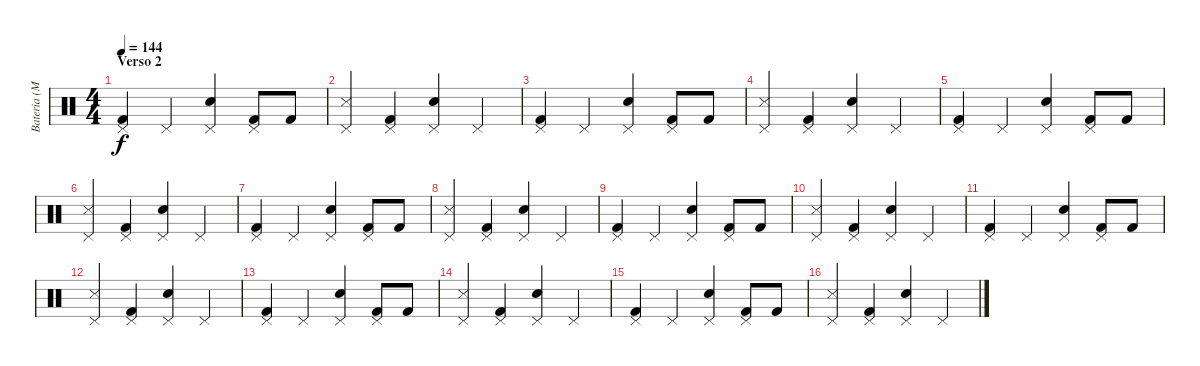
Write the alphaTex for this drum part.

\track ("Bateria (Matt)" "Bateria (M") {instrument percussion}
\staff {score}
\articulation defaults
\ts (4 4)
\section ("" "Verso 2")
\tempo 144
\clef neutral
\ks c
("Pedal Hi-Hat (hit)" "Kick (hit) 2").4{dy f} "Pedal Hi-Hat (hit)".4 ("Pedal Hi-Hat (hit)" "Snare (hit) 2").4 ("Pedal Hi-Hat (hit)" "Kick (hit) 2").8 "Kick (hit) 2".8 |
("Pedal Hi-Hat (hit)" "Snare (side stick) 3").4 ("Pedal Hi-Hat (hit)" "Kick (hit) 2").4 ("Pedal Hi-Hat (hit)" "Snare (hit) 2").4 "Pedal Hi-Hat (hit)".4 |
("Pedal Hi-Hat (hit)" "Kick (hit) 2").4 "Pedal Hi-Hat (hit)".4 ("Pedal Hi-Hat (hit)" "Snare (hit) 2").4 ("Pedal Hi-Hat (hit)" "Kick (hit) 2").8 "Kick (hit) 2".8 |
("Pedal Hi-Hat (hit)" "Snare (side stick) 3").4 ("Pedal Hi-Hat (hit)" "Kick (hit) 2").4 ("Pedal Hi-Hat (hit)" "Snare (hit) 2").4 "Pedal Hi-Hat (hit)".4 |
("Pedal Hi-Hat (hit)" "Kick (hit) 2").4 "Pedal Hi-Hat (hit)".4 ("Pedal Hi-Hat (hit)" "Snare (hit) 2").4 ("Pedal Hi-Hat (hit)" "Kick (hit) 2").8 "Kick (hit) 2".8 |
("Pedal Hi-Hat (hit)" "Snare (side stick) 3").4 ("Pedal Hi-Hat (hit)" "Kick (hit) 2").4 ("Pedal Hi-Hat (hit)" "Snare (hit) 2").4 "Pedal Hi-Hat (hit)".4 |
("Pedal Hi-Hat (hit)" "Kick (hit) 2").4 "Pedal Hi-Hat (hit)".4 ("Pedal Hi-Hat (hit)" "Snare (hit) 2").4 ("Pedal Hi-Hat (hit)" "Kick (hit) 2").8 "Kick (hit) 2".8 |
("Pedal Hi-Hat (hit)" "Snare (side stick) 3").4 ("Pedal Hi-Hat (hit)" "Kick (hit) 2").4 ("Pedal Hi-Hat (hit)" "Snare (hit) 2").4 "Pedal Hi-Hat (hit)".4 |
("Pedal Hi-Hat (hit)" "Kick (hit) 2").4 "Pedal Hi-Hat (hit)".4 ("Pedal Hi-Hat (hit)" "Snare (hit) 2").4 ("Pedal Hi-Hat (hit)" "Kick (hit) 2").8 "Kick (hit) 2".8 |
("Pedal Hi-Hat (hit)" "Snare (side stick) 3").4 ("Pedal Hi-Hat (hit)" "Kick (hit) 2").4 ("Pedal Hi-Hat (hit)" "Snare (hit) 2").4 "Pedal Hi-Hat (hit)".4 |
("Pedal Hi-Hat (hit)" "Kick (hit) 2").4 "Pedal Hi-Hat (hit)".4 ("Pedal Hi-Hat (hit)" "Snare (hit) 2").4 ("Pedal Hi-Hat (hit)" "Kick (hit) 2").8 "Kick (hit) 2".8 |
("Pedal Hi-Hat (hit)" "Snare (side stick) 3").4 ("Pedal Hi-Hat (hit)" "Kick (hit) 2").4 ("Pedal Hi-Hat (hit)" "Snare (hit) 2").4 "Pedal Hi-Hat (hit)".4 |
("Pedal Hi-Hat (hit)" "Kick (hit) 2").4 "Pedal Hi-Hat (hit)".4 ("Pedal Hi-Hat (hit)" "Snare (hit) 2").4 ("Pedal Hi-Hat (hit)" "Kick (hit) 2").8 "Kick (hit) 2".8 |
("Pedal Hi-Hat (hit)" "Snare (side stick) 3").4 ("Pedal Hi-Hat (hit)" "Kick (hit) 2").4 ("Pedal Hi-Hat (hit)" "Snare (hit) 2").4 "Pedal Hi-Hat (hit)".4 |
("Pedal Hi-Hat (hit)" "Kick (hit) 2").4 "Pedal Hi-Hat (hit)".4 ("Pedal Hi-Hat (hit)" "Snare (hit) 2").4 ("Pedal Hi-Hat (hit)" "Kick (hit) 2").8 "Kick (hit) 2".8 |
("Pedal Hi-Hat (hit)" "Snare (side stick) 3").4 ("Pedal Hi-Hat (hit)" "Kick (hit) 2").4 ("Pedal Hi-Hat (hit)" "Snare (hit) 2").4 "Pedal Hi-Hat (hit)".4
